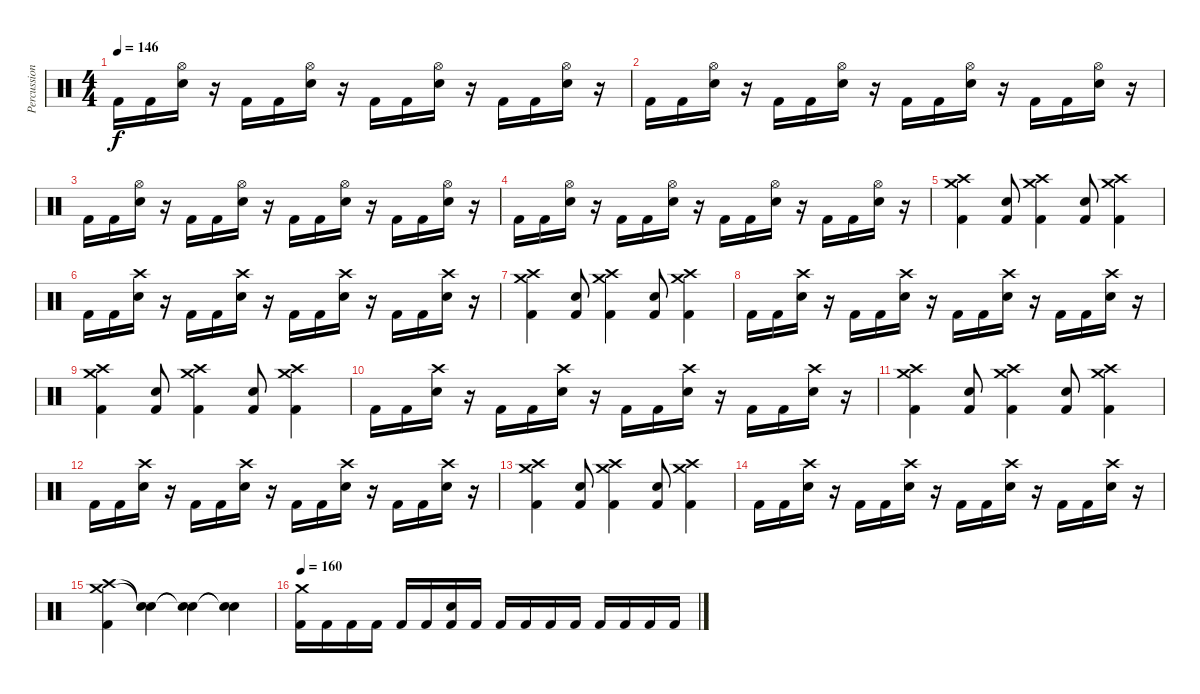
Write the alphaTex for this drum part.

\track ("Percussion(Dr.Spock)" "Percussion") {instrument percussion}
\staff {score}
\articulation defaults
\ts (4 4)
\tempo 146
\clef neutral
\ks c "Kick (hit) 2".16{dy f} "Kick (hit) 2".16
("Snare (hit) 2" "Hi-Hat (open)").16 r.16 "Kick (hit) 2".16 "Kick (hit) 2".16 ("Snare (hit) 2" "Hi-Hat (open)").16 r.16 "Kick (hit) 2".16 "Kick (hit) 2".16 ("Snare (hit) 2" "Hi-Hat (open)").16 r.16 "Kick (hit) 2".16 "Kick (hit) 2".16 ("Snare (hit) 2" "Hi-Hat (open)").16 r.16 |
"Kick (hit) 2".16 "Kick (hit) 2".16 ("Snare (hit) 2" "Hi-Hat (open)").16 r.16 "Kick (hit) 2".16 "Kick (hit) 2".16 ("Snare (hit) 2" "Hi-Hat (open)").16 r.16 "Kick (hit) 2".16 "Kick (hit) 2".16 ("Snare (hit) 2" "Hi-Hat (open)").16 r.16 "Kick (hit) 2".16 "Kick (hit) 2".16 ("Snare (hit) 2" "Hi-Hat (open)").16 r.16 |
"Kick (hit) 2".16 "Kick (hit) 2".16 ("Snare (hit) 2" "Hi-Hat (open)").16 r.16 "Kick (hit) 2".16 "Kick (hit) 2".16 ("Snare (hit) 2" "Hi-Hat (open)").16 r.16 "Kick (hit) 2".16 "Kick (hit) 2".16 ("Snare (hit) 2" "Hi-Hat (open)").16 r.16 "Kick (hit) 2".16 "Kick (hit) 2".16 ("Snare (hit) 2" "Hi-Hat (open)").16 r.16 |
"Kick (hit) 2".16 "Kick (hit) 2".16 ("Snare (hit) 2" "Hi-Hat (open)").16 r.16 "Kick (hit) 2".16 "Kick (hit) 2".16 ("Snare (hit) 2" "Hi-Hat (open)").16 r.16 "Kick (hit) 2".16 "Kick (hit) 2".16 ("Snare (hit) 2" "Hi-Hat (open)").16 r.16 "Kick (hit) 2".16 "Kick (hit) 2".16 ("Snare (hit) 2" "Hi-Hat (open)").16 r.16 |
("Crash medium (hit)" "Crash high (hit)" "Kick (hit) 2").4 ("Snare (hit) 2" "Kick (hit) 2").8 ("Crash medium (hit)" "Crash high (hit)" "Kick (hit) 2").4 ("Snare (hit) 2" "Kick (hit) 2").8 ("Crash medium (hit)" "Crash high (hit)" "Kick (hit) 2").4 |
"Kick (hit) 2".16 "Kick (hit) 2".16 ("Snare (hit) 2" "Crash high (hit)").16 r.16 "Kick (hit) 2".16 "Kick (hit) 2".16 ("Snare (hit) 2" "Crash high (hit)").16 r.16 "Kick (hit) 2".16 "Kick (hit) 2".16 ("Snare (hit) 2" "Crash high (hit)").16 r.16 "Kick (hit) 2".16 "Kick (hit) 2".16 ("Snare (hit) 2" "Crash high (hit)").16 r.16 |
("Crash medium (hit)" "Crash high (hit)" "Kick (hit) 2").4 ("Snare (hit) 2" "Kick (hit) 2").8 ("Crash medium (hit)" "Crash high (hit)" "Kick (hit) 2").4 ("Snare (hit) 2" "Kick (hit) 2").8 ("Crash medium (hit)" "Crash high (hit)" "Kick (hit) 2").4 |
"Kick (hit) 2".16 "Kick (hit) 2".16 ("Snare (hit) 2" "Crash high (hit)").16 r.16 "Kick (hit) 2".16 "Kick (hit) 2".16 ("Snare (hit) 2" "Crash high (hit)").16 r.16 "Kick (hit) 2".16 "Kick (hit) 2".16 ("Snare (hit) 2" "Crash high (hit)").16 r.16 "Kick (hit) 2".16 "Kick (hit) 2".16 ("Snare (hit) 2" "Crash high (hit)").16 r.16 |
("Crash medium (hit)" "Crash high (hit)" "Kick (hit) 2").4 ("Snare (hit) 2" "Kick (hit) 2").8 ("Crash medium (hit)" "Crash high (hit)" "Kick (hit) 2").4 ("Snare (hit) 2" "Kick (hit) 2").8 ("Crash medium (hit)" "Crash high (hit)" "Kick (hit) 2").4 |
"Kick (hit) 2".16 "Kick (hit) 2".16 ("Snare (hit) 2" "Crash high (hit)").16 r.16 "Kick (hit) 2".16 "Kick (hit) 2".16 ("Snare (hit) 2" "Crash high (hit)").16 r.16 "Kick (hit) 2".16 "Kick (hit) 2".16 ("Snare (hit) 2" "Crash high (hit)").16 r.16 "Kick (hit) 2".16 "Kick (hit) 2".16 ("Snare (hit) 2" "Crash high (hit)").16 r.16 |
("Crash medium (hit)" "Crash high (hit)" "Kick (hit) 2").4 ("Snare (hit) 2" "Kick (hit) 2").8 ("Crash medium (hit)" "Crash high (hit)" "Kick (hit) 2").4 ("Snare (hit) 2" "Kick (hit) 2").8 ("Crash medium (hit)" "Crash high (hit)" "Kick (hit) 2").4 |
"Kick (hit) 2".16 "Kick (hit) 2".16 ("Snare (hit) 2" "Crash high (hit)").16 r.16 "Kick (hit) 2".16 "Kick (hit) 2".16 ("Snare (hit) 2" "Crash high (hit)").16 r.16 "Kick (hit) 2".16 "Kick (hit) 2".16 ("Snare (hit) 2" "Crash high (hit)").16 r.16 "Kick (hit) 2".16 "Kick (hit) 2".16 ("Snare (hit) 2" "Crash high (hit)").16 r.16 |
("Crash medium (hit)" "Crash high (hit)" "Kick (hit) 2").4 ("Snare (hit) 2" "Kick (hit) 2").8 ("Crash medium (hit)" "Crash high (hit)" "Kick (hit) 2").4 ("Snare (hit) 2" "Kick (hit) 2").8 ("Crash medium (hit)" "Crash high (hit)" "Kick (hit) 2").4 |
"Kick (hit) 2".16 "Kick (hit) 2".16 ("Snare (hit) 2" "Crash high (hit)").16 r.16 "Kick (hit) 2".16 "Kick (hit) 2".16 ("Snare (hit) 2" "Crash high (hit)").16 r.16 "Kick (hit) 2".16 "Kick (hit) 2".16 ("Snare (hit) 2" "Crash high (hit)").16 r.16 "Kick (hit) 2".16 "Kick (hit) 2".16 ("Snare (hit) 2" "Crash high (hit)").16 r.16 |
("Crash medium (hit)" "Crash high (hit)" "Kick (hit) 2").4 ("Snare (hit)"{t} "Snare (hit)"{t}).4 ("Snare (hit)"{t} "Snare (hit)"{t}).4 ("Snare (hit)"{t} "Snare (hit)"{t}).4 |
\tempo 160
("Kick (hit) 2" "Crash medium (hit)").16 "Kick (hit) 2".16 "Kick (hit) 2".16 "Kick (hit) 2".16 "Kick (hit) 2".16 "Kick (hit) 2".16 ("Kick (hit) 2" "Snare (hit) 2").16 "Kick (hit) 2".16 "Kick (hit) 2".16 "Kick (hit) 2".16 "Kick (hit) 2".16 "Kick (hit) 2".16 "Kick (hit) 2".16 "Kick (hit) 2".16 "Kick (hit) 2".16 "Kick (hit) 2".16
